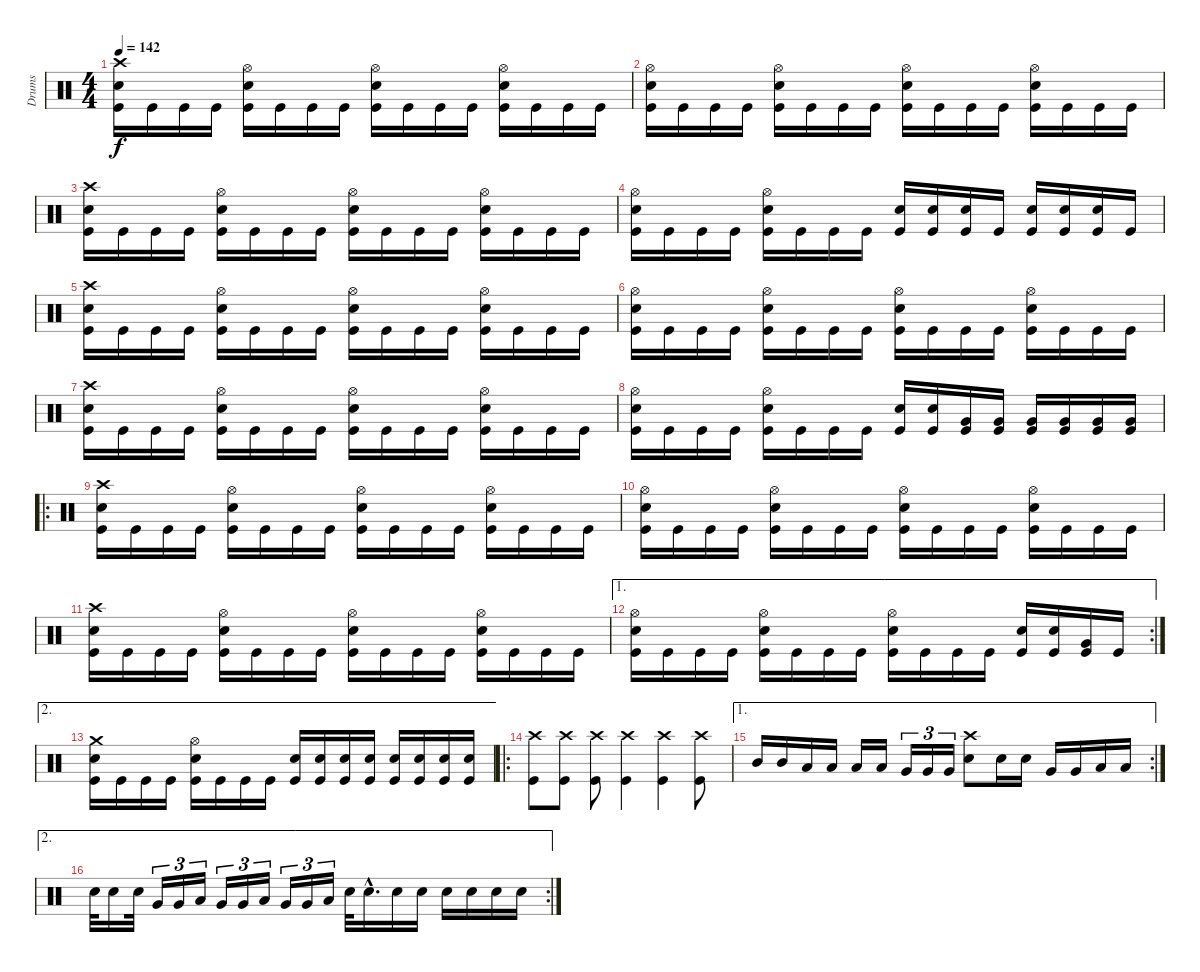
\track ("Drums" "Drums") {instrument percussion}
\staff {score}
\articulation defaults
\ts (4 4)
\tempo 142
\clef neutral
\ks c
("Crash high (hit)" "Electric Snare (hit)" "Kick (hit)").16{dy f} "Kick (hit)".16 "Kick (hit)".16 "Kick (hit)".16 ("Hi-Hat (open)" "Electric Snare (hit)" "Kick (hit)").16 "Kick (hit)".16 "Kick (hit)".16 "Kick (hit)".16 ("Hi-Hat (open)" "Electric Snare (hit)" "Kick (hit)").16 "Kick (hit)".16 "Kick (hit)".16 "Kick (hit)".16 ("Hi-Hat (open)" "Electric Snare (hit)" "Kick (hit)").16 "Kick (hit)".16 "Kick (hit)".16 "Kick (hit)".16 |
("Hi-Hat (open)" "Electric Snare (hit)" "Kick (hit)").16 "Kick (hit)".16 "Kick (hit)".16 "Kick (hit)".16 ("Hi-Hat (open)" "Electric Snare (hit)" "Kick (hit)").16 "Kick (hit)".16 "Kick (hit)".16 "Kick (hit)".16 ("Hi-Hat (open)" "Electric Snare (hit)" "Kick (hit)").16 "Kick (hit)".16 "Kick (hit)".16 "Kick (hit)".16 ("Hi-Hat (open)" "Electric Snare (hit)" "Kick (hit)").16 "Kick (hit)".16 "Kick (hit)".16 "Kick (hit)".16 |
("Crash high (hit)" "Electric Snare (hit)" "Kick (hit)").16 "Kick (hit)".16 "Kick (hit)".16 "Kick (hit)".16 ("Hi-Hat (open)" "Electric Snare (hit)" "Kick (hit)").16 "Kick (hit)".16 "Kick (hit)".16 "Kick (hit)".16 ("Hi-Hat (open)" "Electric Snare (hit)" "Kick (hit)").16 "Kick (hit)".16 "Kick (hit)".16 "Kick (hit)".16 ("Hi-Hat (open)" "Electric Snare (hit)" "Kick (hit)").16 "Kick (hit)".16 "Kick (hit)".16 "Kick (hit)".16 |
("Hi-Hat (open)" "Electric Snare (hit)" "Kick (hit)").16 "Kick (hit)".16 "Kick (hit)".16 "Kick (hit)".16 ("Hi-Hat (open)" "Electric Snare (hit)" "Kick (hit)").16 "Kick (hit)".16 "Kick (hit)".16 "Kick (hit)".16 ("Electric Snare (hit)" "Kick (hit)").16 ("Electric Snare (hit)" "Kick (hit)").16 ("Electric Snare (hit)" "Kick (hit)").16 "Kick (hit)".16 ("Electric Snare (hit)" "Kick (hit)").16 ("Electric Snare (hit)" "Kick (hit)").16 ("Electric Snare (hit)" "Kick (hit)").16 "Kick (hit)".16 |
("Crash high (hit)" "Electric Snare (hit)" "Kick (hit)").16 "Kick (hit)".16 "Kick (hit)".16 "Kick (hit)".16 ("Hi-Hat (open)" "Electric Snare (hit)" "Kick (hit)").16 "Kick (hit)".16 "Kick (hit)".16 "Kick (hit)".16 ("Hi-Hat (open)" "Electric Snare (hit)" "Kick (hit)").16 "Kick (hit)".16 "Kick (hit)".16 "Kick (hit)".16 ("Hi-Hat (open)" "Electric Snare (hit)" "Kick (hit)").16 "Kick (hit)".16 "Kick (hit)".16 "Kick (hit)".16 |
("Hi-Hat (open)" "Electric Snare (hit)" "Kick (hit)").16 "Kick (hit)".16 "Kick (hit)".16 "Kick (hit)".16 ("Hi-Hat (open)" "Electric Snare (hit)" "Kick (hit)").16 "Kick (hit)".16 "Kick (hit)".16 "Kick (hit)".16 ("Hi-Hat (open)" "Electric Snare (hit)" "Kick (hit)").16 "Kick (hit)".16 "Kick (hit)".16 "Kick (hit)".16 ("Hi-Hat (open)" "Electric Snare (hit)" "Kick (hit)").16 "Kick (hit)".16 "Kick (hit)".16 "Kick (hit)".16 |
("Crash high (hit)" "Electric Snare (hit)" "Kick (hit)").16 "Kick (hit)".16 "Kick (hit)".16 "Kick (hit)".16 ("Hi-Hat (open)" "Electric Snare (hit)" "Kick (hit)").16 "Kick (hit)".16 "Kick (hit)".16 "Kick (hit)".16 ("Hi-Hat (open)" "Electric Snare (hit)" "Kick (hit)").16 "Kick (hit)".16 "Kick (hit)".16 "Kick (hit)".16 ("Hi-Hat (open)" "Electric Snare (hit)" "Kick (hit)").16 "Kick (hit)".16 "Kick (hit)".16 "Kick (hit)".16 |
("Hi-Hat (open)" "Electric Snare (hit)" "Kick (hit)").16 "Kick (hit)".16 "Kick (hit)".16 "Kick (hit)".16 ("Hi-Hat (open)" "Electric Snare (hit)" "Kick (hit)").16 "Kick (hit)".16 "Kick (hit)".16 "Kick (hit)".16 ("Electric Snare (hit)" "Kick (hit)").16 ("Electric Snare (hit)" "Kick (hit)").16 ("Very Low Tom (hit)" "Kick (hit)").16 ("Very Low Tom (hit)" "Kick (hit)").16 ("Very Low Tom (hit)" "Kick (hit)").16 ("Very Low Tom (hit)" "Kick (hit)").16 ("Very Low Tom (hit)" "Kick (hit)").16 ("Very Low Tom (hit)" "Kick (hit)").16 |
\ro
("Crash high (hit)" "Electric Snare (hit)" "Kick (hit)").16 "Kick (hit)".16 "Kick (hit)".16 "Kick (hit)".16 ("Hi-Hat (open)" "Electric Snare (hit)" "Kick (hit)").16 "Kick (hit)".16 "Kick (hit)".16 "Kick (hit)".16 ("Hi-Hat (open)" "Electric Snare (hit)" "Kick (hit)").16 "Kick (hit)".16 "Kick (hit)".16 "Kick (hit)".16 ("Hi-Hat (open)" "Electric Snare (hit)" "Kick (hit)").16 "Kick (hit)".16 "Kick (hit)".16 "Kick (hit)".16 |
("Hi-Hat (open)" "Electric Snare (hit)" "Kick (hit)").16 "Kick (hit)".16 "Kick (hit)".16 "Kick (hit)".16 ("Hi-Hat (open)" "Electric Snare (hit)" "Kick (hit)").16 "Kick (hit)".16 "Kick (hit)".16 "Kick (hit)".16 ("Hi-Hat (open)" "Electric Snare (hit)" "Kick (hit)").16 "Kick (hit)".16 "Kick (hit)".16 "Kick (hit)".16 ("Hi-Hat (open)" "Electric Snare (hit)" "Kick (hit)").16 "Kick (hit)".16 "Kick (hit)".16 "Kick (hit)".16 |
("Crash high (hit)" "Electric Snare (hit)" "Kick (hit)").16 "Kick (hit)".16 "Kick (hit)".16 "Kick (hit)".16 ("Hi-Hat (open)" "Electric Snare (hit)" "Kick (hit)").16 "Kick (hit)".16 "Kick (hit)".16 "Kick (hit)".16 ("Hi-Hat (open)" "Electric Snare (hit)" "Kick (hit)").16 "Kick (hit)".16 "Kick (hit)".16 "Kick (hit)".16 ("Hi-Hat (open)" "Electric Snare (hit)" "Kick (hit)").16 "Kick (hit)".16 "Kick (hit)".16 "Kick (hit)".16 |
\ae 1
\rc 2
("Hi-Hat (open)" "Electric Snare (hit)" "Kick (hit)").16 "Kick (hit)".16 "Kick (hit)".16 "Kick (hit)".16 ("Hi-Hat (open)" "Electric Snare (hit)" "Kick (hit)").16 "Kick (hit)".16 "Kick (hit)".16 "Kick (hit)".16 ("Hi-Hat (open)" "Electric Snare (hit)" "Kick (hit)").16 "Kick (hit)".16 "Kick (hit)".16 "Kick (hit)".16 ("Electric Snare (hit)" "Kick (hit)").16 ("Electric Snare (hit)" "Kick (hit)").16 ("Very Low Tom (hit)" "Kick (hit)").16 "Kick (hit)".16 |
\ae 2
("Crash medium (hit)" "Electric Snare (hit)" "Kick (hit)").16 "Kick (hit)".16 "Kick (hit)".16 "Kick (hit)".16 ("Hi-Hat (open)" "Electric Snare (hit)" "Kick (hit)").16 "Kick (hit)".16 "Kick (hit)".16 "Kick (hit)".16 ("Electric Snare (hit)" "Kick (hit)").16 ("Electric Snare (hit)" "Kick (hit)").16 ("Electric Snare (hit)" "Kick (hit)").16 ("Electric Snare (hit)" "Kick (hit)").16 ("Electric Snare (hit)" "Kick (hit)").16 ("Electric Snare (hit)" "Kick (hit)").16 ("Electric Snare (hit)" "Kick (hit)").16 ("Electric Snare (hit)" "Kick (hit)").16 |
\ro
("Crash high (hit)" "Kick (hit)").8 ("Crash high (hit)" "Kick (hit)").8 ("Crash high (hit)" "Kick (hit)").8 ("Crash high (hit)" "Kick (hit)").4 ("Crash high (hit)" "Kick (hit)").4 ("Crash high (hit)" "Kick (hit)").8 |
\ae 1
\rc 2 "Mid Tom (hit)".16 "Mid Tom (hit)".16 "Low Tom (hit)".16 "Low Tom (hit)".16 "Low Tom (hit)".16 "Low Tom (hit)".16 "Very Low Tom (hit)".16{tu (3 2)} "Very Low Tom (hit)".16{tu (3 2)} "Very Low Tom (hit)".16{tu (3 2)}
("Crash high (hit)" "Electric Snare (hit)").8 "Electric Snare (hit)".16 "Electric Snare (hit)".16 "Very Low Tom (hit)".16 "Very Low Tom (hit)".16 "Low Floor Tom (hit)".16 "Low Floor Tom (hit)".16 |
\ae 2
\rc 2 "Electric Snare (hit)".32 "Electric Snare (hit)".16 "Electric Snare (hit)".32 "Very Low Tom (hit)".16{tu (3 2)} "Very Low Tom (hit)".16{tu (3 2)} "Low Floor Tom (hit)".16{tu (3 2)} "Very Low Tom (hit)".16{tu (3 2)} "Very Low Tom (hit)".16{tu (3 2)} "Low Floor Tom (hit)".16{tu (3 2)} "Very Low Tom (hit)".16{tu (3 2)} "Very Low Tom (hit)".16{tu (3 2)} "Low Floor Tom (hit)".16{tu (3 2)} "Electric Snare (hit)".32 "Electric Snare (hit)"{hac}.16{d} "Electric Snare (hit)".16 "Electric Snare (hit)".16 "Electric Snare (hit)".16 "Electric Snare (hit)".16 "Electric Snare (hit)".16 "Electric Snare (hit)".16
